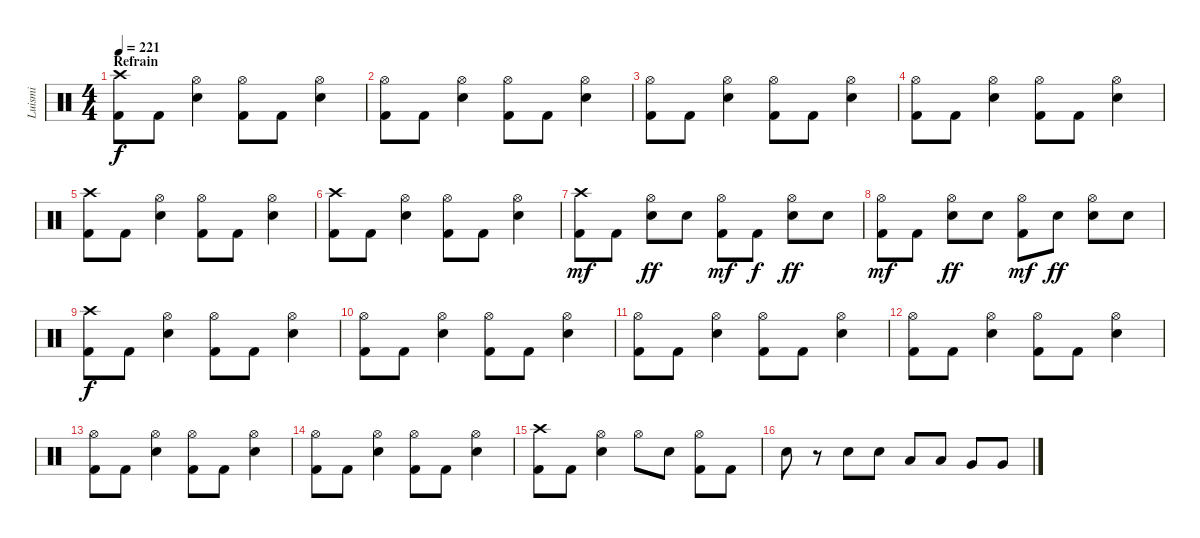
\track ("Luismi" "Luismi") {instrument percussion}
\staff {score}
\articulation defaults
\ts (4 4)
\section ("" "Refrain")
\tempo 221
\clef neutral
\ks c
("Crash high (hit)" "Kick (hit) 2").8{dy f} "Kick (hit) 2".8 ("Hi-Hat (open)" "Snare (hit) 2").4 ("Hi-Hat (open)" "Kick (hit) 2").8 "Kick (hit) 2".8 ("Hi-Hat (open)" "Snare (hit) 2").4 |
("Hi-Hat (open)" "Kick (hit) 2").8 "Kick (hit) 2".8 ("Hi-Hat (open)" "Snare (hit) 2").4 ("Hi-Hat (open)" "Kick (hit) 2").8 "Kick (hit) 2".8 ("Hi-Hat (open)" "Snare (hit) 2").4 |
("Hi-Hat (open)" "Kick (hit) 2").8 "Kick (hit) 2".8 ("Hi-Hat (open)" "Snare (hit) 2").4 ("Hi-Hat (open)" "Kick (hit) 2").8 "Kick (hit) 2".8 ("Hi-Hat (open)" "Snare (hit) 2").4 |
("Hi-Hat (open)" "Kick (hit) 2").8 "Kick (hit) 2".8 ("Hi-Hat (open)" "Snare (hit) 2").4 ("Hi-Hat (open)" "Kick (hit) 2").8 "Kick (hit) 2".8 ("Hi-Hat (open)" "Snare (hit) 2").4 |
("Crash high (hit)" "Kick (hit) 2").8 "Kick (hit) 2".8 ("Hi-Hat (open)" "Snare (hit) 2").4 ("Hi-Hat (open)" "Kick (hit) 2").8 "Kick (hit) 2".8 ("Hi-Hat (open)" "Snare (hit) 2").4 |
("Crash high (hit)" "Kick (hit) 2").8 "Kick (hit) 2".8 ("Hi-Hat (open)" "Snare (hit) 2").4 ("Hi-Hat (open)" "Kick (hit) 2").8 "Kick (hit) 2".8 ("Hi-Hat (open)" "Snare (hit) 2").4 |
("Crash high (hit)" "Kick (hit) 2").8{dy mf} "Kick (hit) 2".8 ("Hi-Hat (open)" "Snare (hit) 2").8{dy ff} "Snare (hit) 2".8 ("Hi-Hat (open)" "Kick (hit) 2").8{dy mf} "Kick (hit) 2".8{dy f} ("Hi-Hat (open)" "Snare (hit) 2").8{dy ff} "Snare (hit) 2".8 |
("Hi-Hat (open)" "Kick (hit) 2").8{dy mf} "Kick (hit) 2".8 ("Hi-Hat (open)" "Snare (hit) 2").8{dy ff} "Snare (hit) 2".8 ("Hi-Hat (open)" "Kick (hit) 2").8{dy mf} "Snare (hit) 2".8{dy ff} ("Hi-Hat (open)" "Snare (hit) 2").8 "Snare (hit) 2".8 |
("Crash high (hit)" "Kick (hit) 2").8{dy f} "Kick (hit) 2".8 ("Hi-Hat (open)" "Snare (hit) 2").4 ("Hi-Hat (open)" "Kick (hit) 2").8 "Kick (hit) 2".8 ("Hi-Hat (open)" "Snare (hit) 2").4 |
("Hi-Hat (open)" "Kick (hit) 2").8 "Kick (hit) 2".8 ("Hi-Hat (open)" "Snare (hit) 2").4 ("Hi-Hat (open)" "Kick (hit) 2").8 "Kick (hit) 2".8 ("Hi-Hat (open)" "Snare (hit) 2").4 |
("Hi-Hat (open)" "Kick (hit) 2").8 "Kick (hit) 2".8 ("Hi-Hat (open)" "Snare (hit) 2").4 ("Hi-Hat (open)" "Kick (hit) 2").8 "Kick (hit) 2".8 ("Hi-Hat (open)" "Snare (hit) 2").4 |
("Hi-Hat (open)" "Kick (hit) 2").8 "Kick (hit) 2".8 ("Hi-Hat (open)" "Snare (hit) 2").4 ("Hi-Hat (open)" "Kick (hit) 2").8 "Kick (hit) 2".8 ("Hi-Hat (open)" "Snare (hit) 2").4 |
("Hi-Hat (open)" "Kick (hit) 2").8 "Kick (hit) 2".8 ("Hi-Hat (open)" "Snare (hit) 2").4 ("Hi-Hat (open)" "Kick (hit) 2").8 "Kick (hit) 2".8 ("Hi-Hat (open)" "Snare (hit) 2").4 |
("Hi-Hat (open)" "Kick (hit) 2").8 "Kick (hit) 2".8 ("Hi-Hat (open)" "Snare (hit) 2").4 ("Hi-Hat (open)" "Kick (hit) 2").8 "Kick (hit) 2".8 ("Hi-Hat (open)" "Snare (hit) 2").4 |
("Crash high (hit)" "Kick (hit) 2").8 "Kick (hit) 2".8 ("Hi-Hat (open)" "Snare (hit) 2").4 "Hi-Hat (open)".8 "Snare (hit) 2".8 ("Hi-Hat (open)" "Kick (hit) 2").8 "Kick (hit) 2".8 |
"Snare (hit) 2".8 r.8 "Snare (hit) 2".8 "Snare (hit) 2".8 "Low Tom (hit)".8 "Low Tom (hit)".8 "Very Low Tom (hit)".8 "Very Low Tom (hit)".8
